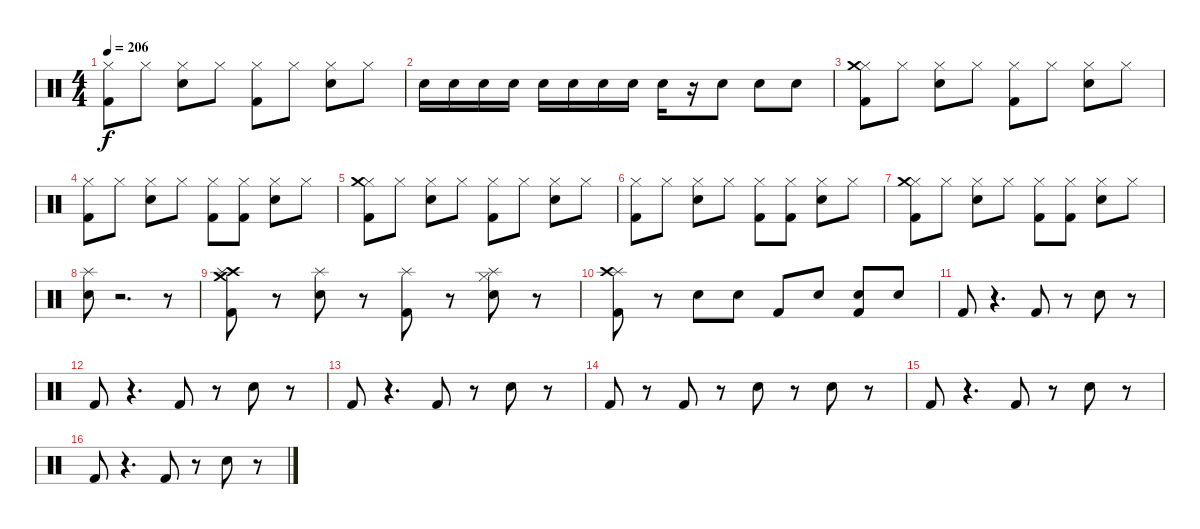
\track "" {instrument percussion}
\staff {score}
\articulation defaults
\ts (4 4)
\tempo 206
\clef neutral
\ks c
("Hi-Hat (closed)" "Kick (hit) 2").8{dy f} "Hi-Hat (closed)".8 ("Hi-Hat (closed)" "Electric Snare (hit)").8 "Hi-Hat (closed)".8 ("Hi-Hat (closed)" "Kick (hit) 2").8 "Hi-Hat (closed)".8 ("Hi-Hat (closed)" "Electric Snare (hit)").8 "Hi-Hat (closed)".8 |
"Electric Snare (hit)".16 "Electric Snare (hit)".16 "Electric Snare (hit)".16 "Electric Snare (hit)".16 "Electric Snare (hit)".16 "Electric Snare (hit)".16 "Electric Snare (hit)".16 "Electric Snare (hit)".16 "Electric Snare (hit)".16 r.16 "Electric Snare (hit)".8 "Electric Snare (hit)".8 "Electric Snare (hit)".8 |
("Hi-Hat (closed)" "Crash medium (hit)" "Kick (hit) 2").8 "Hi-Hat (closed)".8 ("Hi-Hat (closed)" "Electric Snare (hit)").8 "Hi-Hat (closed)".8 ("Hi-Hat (closed)" "Kick (hit) 2").8 "Hi-Hat (closed)".8 ("Hi-Hat (closed)" "Electric Snare (hit)").8 "Hi-Hat (closed)".8 |
("Hi-Hat (closed)" "Kick (hit) 2").8 "Hi-Hat (closed)".8 ("Hi-Hat (closed)" "Electric Snare (hit)").8 "Hi-Hat (closed)".8 ("Hi-Hat (closed)" "Kick (hit) 2").8 ("Hi-Hat (closed)" "Kick (hit) 2").8 ("Hi-Hat (closed)" "Electric Snare (hit)").8 "Hi-Hat (closed)".8 |
("Hi-Hat (closed)" "Crash medium (hit)" "Kick (hit) 2").8 "Hi-Hat (closed)".8 ("Hi-Hat (closed)" "Electric Snare (hit)").8 "Hi-Hat (closed)".8 ("Hi-Hat (closed)" "Kick (hit) 2").8 "Hi-Hat (closed)".8 ("Hi-Hat (closed)" "Electric Snare (hit)").8 "Hi-Hat (closed)".8 |
("Hi-Hat (closed)" "Kick (hit) 2").8 "Hi-Hat (closed)".8 ("Hi-Hat (closed)" "Electric Snare (hit)").8 "Hi-Hat (closed)".8 ("Hi-Hat (closed)" "Kick (hit) 2").8 ("Hi-Hat (closed)" "Kick (hit) 2").8 ("Hi-Hat (closed)" "Electric Snare (hit)").8 "Hi-Hat (closed)".8 |
("Hi-Hat (closed)" "Crash medium (hit)" "Kick (hit) 2").8 "Hi-Hat (closed)".8 ("Hi-Hat (closed)" "Electric Snare (hit)").8 "Hi-Hat (closed)".8 ("Hi-Hat (closed)" "Kick (hit) 2").8 ("Kick (hit) 2" "Hi-Hat (closed)").8 ("Hi-Hat (closed)" "Electric Snare (hit)").8 "Hi-Hat (closed)".8 |
("Electric Snare (hit)" "Splash (hit)").8 r.2{d} r.8 |
("Crash medium (hit)" "Crash high (hit)" "Splash (hit)" "Kick (hit) 2").8 r.8 ("Splash (hit)" "Electric Snare (hit)").8 r.8 ("Splash (hit)" "Kick (hit) 2").8 r.8 ("Splash (hit)" "Hi-Hat (closed)" "Electric Snare (hit)").8 r.8 |
("Splash (hit)" "Crash high (hit)" "Kick (hit) 2").8 r.8 "Electric Snare (hit)".8 "Electric Snare (hit)".8 "Kick (hit) 2".8 "Electric Snare (hit)".8 ("Kick (hit) 2" "Electric Snare (hit)").8 "Electric Snare (hit)".8 |
"Kick (hit) 2".8 r.4{d} "Kick (hit) 2".8 r.8 "Electric Snare (hit)".8 r.8 |
"Kick (hit) 2".8 r.4{d} "Kick (hit) 2".8 r.8 "Electric Snare (hit)".8 r.8 |
"Kick (hit) 2".8 r.4{d} "Kick (hit) 2".8 r.8 "Electric Snare (hit)".8 r.8 |
"Kick (hit) 2".8 r.8 "Kick (hit) 2".8 r.8 "Electric Snare (hit)".8 r.8 "Electric Snare (hit)".8 r.8 |
"Kick (hit) 2".8 r.4{d} "Kick (hit) 2".8 r.8 "Electric Snare (hit)".8 r.8 |
"Kick (hit) 2".8 r.4{d} "Kick (hit) 2".8 r.8 "Electric Snare (hit)".8 r.8
